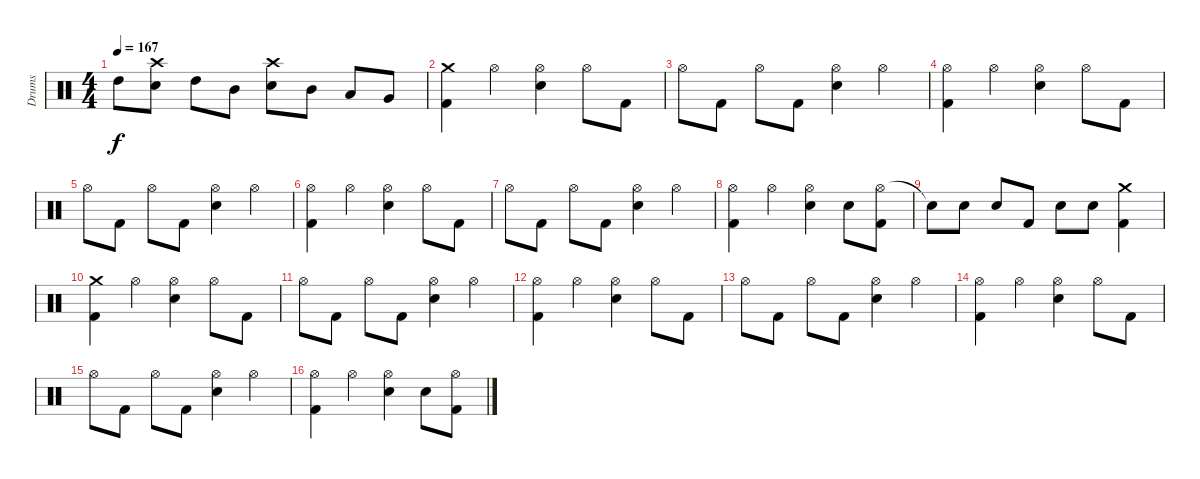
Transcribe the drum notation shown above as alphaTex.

\track ("Drums" "Drums") {instrument percussion}
\staff {score}
\articulation defaults
\ts (4 4)
\tempo 167
\clef neutral
\ks c "High Tom (hit)".8{dy f}
("Crash high (hit)" "Snare (hit) 2").8 "High Tom (hit)".8 "Mid Tom (hit)".8 ("Crash high (hit)" "Snare (hit) 2").8 "Mid Tom (hit)".8 "Low Tom (hit)".8 "Very Low Tom (hit)".8 |
("Crash medium (hit)" "Kick (hit) 2").4 "Hi-Hat (open)".4 ("Hi-Hat (open)" "Snare (hit) 2").4 "Hi-Hat (open)".8 "Kick (hit) 2".8 |
"Hi-Hat (open)".8 "Kick (hit) 2".8 "Hi-Hat (open)".8 "Kick (hit) 2".8 ("Hi-Hat (open)" "Snare (hit) 2").4 "Hi-Hat (open)".4 |
("Hi-Hat (open)" "Kick (hit) 2").4 "Hi-Hat (open)".4 ("Hi-Hat (open)" "Snare (hit) 2").4 "Hi-Hat (open)".8 "Kick (hit) 2".8 |
"Hi-Hat (open)".8 "Kick (hit) 2".8 "Hi-Hat (open)".8 "Kick (hit) 2".8 ("Hi-Hat (open)" "Snare (hit) 2").4 "Hi-Hat (open)".4 |
("Hi-Hat (open)" "Kick (hit) 2").4 "Hi-Hat (open)".4 ("Hi-Hat (open)" "Snare (hit) 2").4 "Hi-Hat (open)".8 "Kick (hit) 2".8 |
"Hi-Hat (open)".8 "Kick (hit) 2".8 "Hi-Hat (open)".8 "Kick (hit) 2".8 ("Hi-Hat (open)" "Snare (hit) 2").4 "Hi-Hat (open)".4 |
("Hi-Hat (open)" "Kick (hit) 2").4 "Hi-Hat (open)".4 ("Hi-Hat (open)" "Snare (hit) 2").4 "Snare (hit) 2".8 ("Hi-Hat (open)" "Kick (hit) 2").8 |
"Snare (hit)"{t}.8 "Snare (hit) 2".8 "Snare (hit) 2".8 "Kick (hit) 2".8 "Snare (hit) 2".8 "Snare (hit) 2".8 ("Crash medium (hit)" "Kick (hit) 2").4 |
("Crash medium (hit)" "Kick (hit) 2").4 "Hi-Hat (open)".4 ("Hi-Hat (open)" "Snare (hit) 2").4 "Hi-Hat (open)".8 "Kick (hit) 2".8 |
"Hi-Hat (open)".8 "Kick (hit) 2".8 "Hi-Hat (open)".8 "Kick (hit) 2".8 ("Hi-Hat (open)" "Snare (hit) 2").4 "Hi-Hat (open)".4 |
("Hi-Hat (open)" "Kick (hit) 2").4 "Hi-Hat (open)".4 ("Hi-Hat (open)" "Snare (hit) 2").4 "Hi-Hat (open)".8 "Kick (hit) 2".8 |
"Hi-Hat (open)".8 "Kick (hit) 2".8 "Hi-Hat (open)".8 "Kick (hit) 2".8 ("Hi-Hat (open)" "Snare (hit) 2").4 "Hi-Hat (open)".4 |
("Hi-Hat (open)" "Kick (hit) 2").4 "Hi-Hat (open)".4 ("Hi-Hat (open)" "Snare (hit) 2").4 "Hi-Hat (open)".8 "Kick (hit) 2".8 |
"Hi-Hat (open)".8 "Kick (hit) 2".8 "Hi-Hat (open)".8 "Kick (hit) 2".8 ("Hi-Hat (open)" "Snare (hit) 2").4 "Hi-Hat (open)".4 |
("Hi-Hat (open)" "Kick (hit) 2").4 "Hi-Hat (open)".4 ("Hi-Hat (open)" "Snare (hit) 2").4 "Snare (hit) 2".8 ("Hi-Hat (open)" "Kick (hit) 2").8
